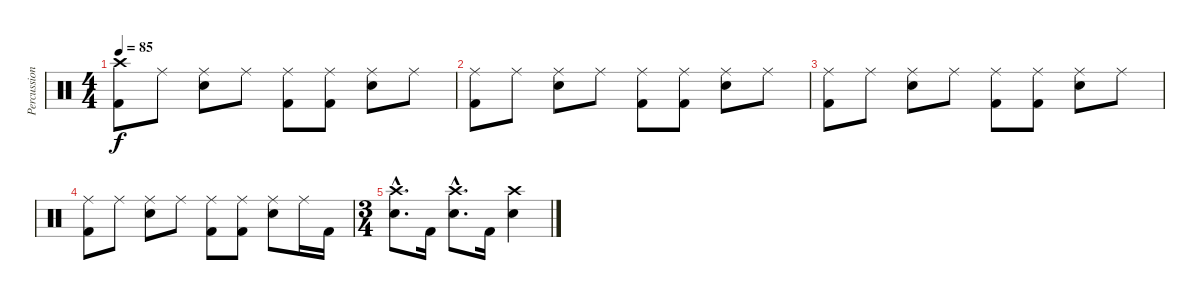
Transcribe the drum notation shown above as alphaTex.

\track ("Percussion" "Percussion") {instrument percussion}
\staff {score}
\articulation defaults
\ts (4 4)
\tempo 85
\clef neutral
\ks c
("Crash high (hit)" "Kick (hit) 2").8{dy f} "Ride (middle)".8 ("Ride (middle)" "Electric Snare (hit)").8 "Ride (middle)".8 ("Ride (middle)" "Kick (hit) 2").8 ("Ride (middle)" "Kick (hit) 2").8 ("Ride (middle)" "Electric Snare (hit)").8 "Ride (middle)".8 |
("Ride (middle)" "Kick (hit) 2").8 "Ride (middle)".8 ("Ride (middle)" "Electric Snare (hit)").8 "Ride (middle)".8 ("Ride (middle)" "Kick (hit) 2").8 ("Ride (middle)" "Kick (hit) 2").8 ("Ride (middle)" "Electric Snare (hit)").8 "Ride (middle)".8 |
("Ride (middle)" "Kick (hit) 2").8 "Ride (middle)".8 ("Ride (middle)" "Electric Snare (hit)").8 "Ride (middle)".8 ("Ride (middle)" "Kick (hit) 2").8 ("Ride (middle)" "Kick (hit) 2").8 ("Ride (middle)" "Electric Snare (hit)").8 "Ride (middle)".8 |
("Ride (middle)" "Kick (hit) 2").8 "Ride (middle)".8 ("Ride (middle)" "Electric Snare (hit)").8 "Ride (middle)".8 ("Ride (middle)" "Kick (hit) 2").8 ("Ride (middle)" "Kick (hit) 2").8 ("Ride (middle)" "Electric Snare (hit)").8 "Ride (middle)".16 "Kick (hit) 2".16 |
\ts (3 4)
("Crash high (hit)"{hac} "Electric Snare (hit)"{hac}).8{d} "Kick (hit) 2".16 ("Crash high (hit)"{hac} "Electric Snare (hit)"{hac}).8{d} "Kick (hit) 2".16 ("Crash high (hit)" "Electric Snare (hit)").4
